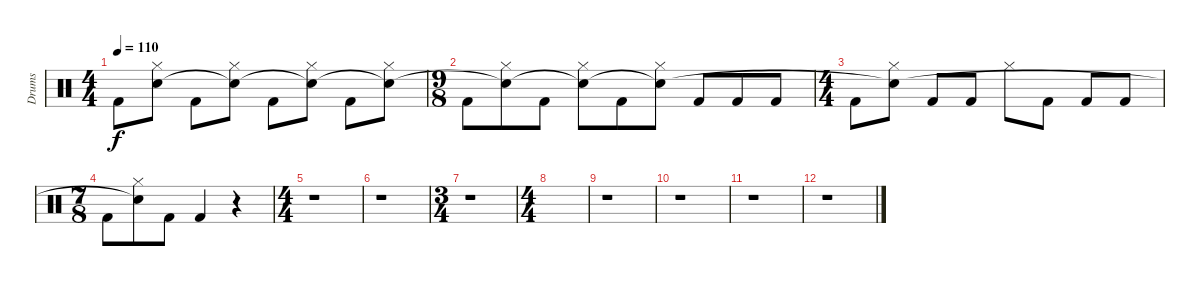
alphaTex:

\track ("Drums" "Drums") {instrument percussion}
\staff {score}
\articulation defaults
\ts (4 4)
\tempo 110
\clef neutral
\ks c "Kick (hit) 2".8{dy f}
("Hi-Hat (closed)" "Snare (hit)"{t}).8 "Kick (hit) 2".8 ("Hi-Hat (closed)" "Snare (hit)"{t}).8 "Kick (hit) 2".8 ("Hi-Hat (closed)" "Snare (hit)"{t}).8 "Kick (hit) 2".8 ("Hi-Hat (closed)" "Snare (hit)"{t}).8 |
\ts (9 8)
"Kick (hit) 2".8 ("Hi-Hat (closed)" "Snare (hit)"{t}).8 "Kick (hit) 2".8 ("Hi-Hat (closed)" "Snare (hit)"{t}).8 "Kick (hit) 2".8 ("Hi-Hat (closed)" "Snare (hit)"{t}).8 "Kick (hit) 2".8 "Kick (hit) 2".8 "Kick (hit) 2".8 |
\ts (4 4)
"Kick (hit) 2".8 ("Hi-Hat (closed)" "Snare (hit)"{t}).8 "Kick (hit) 2".8 "Kick (hit) 2".8 "Hi-Hat (closed)".8 "Kick (hit) 2".8 "Kick (hit) 2".8 "Kick (hit) 2".8 |
\ts (7 8)
"Kick (hit) 2".8 ("Hi-Hat (closed)" "Snare (hit)"{t}).8 "Kick (hit) 2".8 "Kick (hit) 2".4 r.4 |
\ts (4 4)
r.1 |
r.1 |
\ts (3 4)
r.1 |
\ts (4 4)
|
r.1 |
r.1 |
r.1 |
r.1
